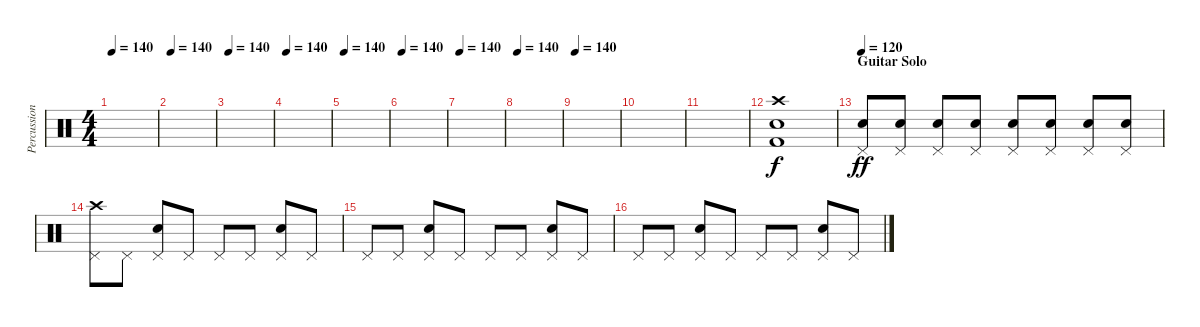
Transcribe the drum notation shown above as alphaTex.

\track ("Percussion" "Percussion") {instrument percussion}
\staff {score}
\articulation defaults
\ts (4 4)
\tempo 140
\clef neutral
\ks c
|
\tempo 140
|
\tempo 140
|
\tempo 140
|
\tempo 140
|
\tempo 140
|
\tempo 140
|
\tempo 140
|
\tempo 140
|
|
|
("Snare (hit) 2" "Crash high (hit)" "Kick (hit) 2").1 |
\section ("" "Guitar Solo")
\tempo 120
("Pedal Hi-Hat (hit)" "Electric Snare (hit)").8{dy ff volume 12} ("Pedal Hi-Hat (hit)" "Electric Snare (hit)").8 ("Pedal Hi-Hat (hit)" "Electric Snare (hit)").8 ("Pedal Hi-Hat (hit)" "Electric Snare (hit)").8 ("Pedal Hi-Hat (hit)" "Electric Snare (hit)").8 ("Pedal Hi-Hat (hit)" "Electric Snare (hit)").8 ("Pedal Hi-Hat (hit)" "Electric Snare (hit)").8 ("Pedal Hi-Hat (hit)" "Electric Snare (hit)").8 |
("Pedal Hi-Hat (hit)" "Crash high (hit)").8 "Pedal Hi-Hat (hit)".8 ("Pedal Hi-Hat (hit)" "Electric Snare (hit)").8 "Pedal Hi-Hat (hit)".8 "Pedal Hi-Hat (hit)".8 "Pedal Hi-Hat (hit)".8 ("Pedal Hi-Hat (hit)" "Electric Snare (hit)").8 "Pedal Hi-Hat (hit)".8 |
"Pedal Hi-Hat (hit)".8 "Pedal Hi-Hat (hit)".8 ("Pedal Hi-Hat (hit)" "Electric Snare (hit)").8 "Pedal Hi-Hat (hit)".8 "Pedal Hi-Hat (hit)".8 "Pedal Hi-Hat (hit)".8 ("Pedal Hi-Hat (hit)" "Electric Snare (hit)").8 "Pedal Hi-Hat (hit)".8 |
"Pedal Hi-Hat (hit)".8 "Pedal Hi-Hat (hit)".8 ("Pedal Hi-Hat (hit)" "Electric Snare (hit)").8 "Pedal Hi-Hat (hit)".8 "Pedal Hi-Hat (hit)".8 "Pedal Hi-Hat (hit)".8 ("Pedal Hi-Hat (hit)" "Electric Snare (hit)").8 "Pedal Hi-Hat (hit)".8
